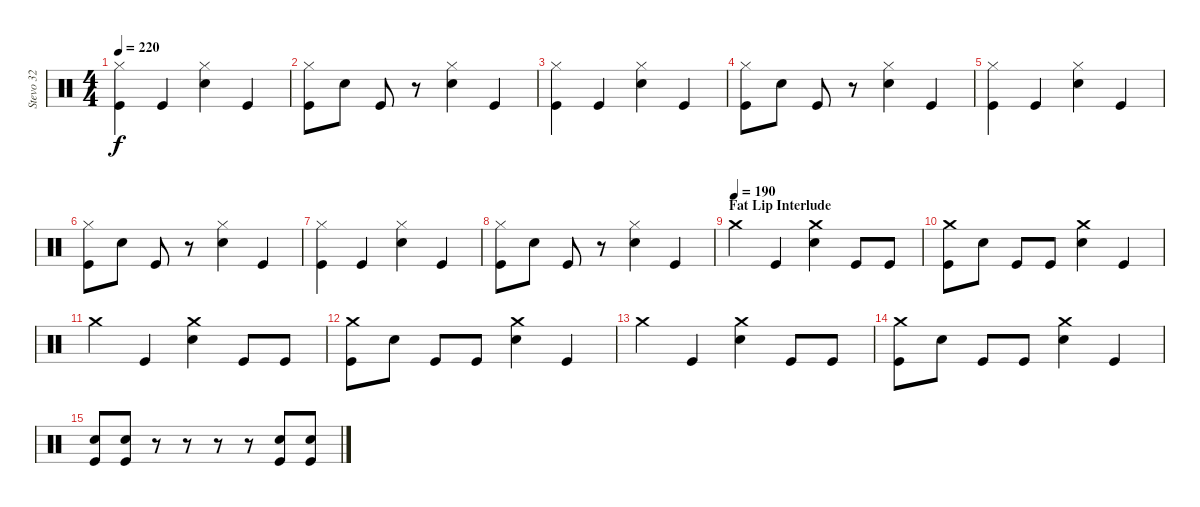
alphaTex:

\track ("Stevo 32" "Stevo 32") {instrument percussion}
\staff {score}
\articulation defaults
\ts (4 4)
\tempo 220
\clef neutral
\ks c
("Hi-Hat (closed)" "Kick (hit)").4{dy f} "Kick (hit)".4 ("Hi-Hat (closed)" "Snare (hit) 2").4 "Kick (hit)".4 |
("Hi-Hat (closed)" "Kick (hit)").8 "Snare (hit) 2".8 "Kick (hit)".8 r.8 ("Hi-Hat (closed)" "Snare (hit) 2").4 "Kick (hit)".4 |
("Hi-Hat (closed)" "Kick (hit)").4 "Kick (hit)".4 ("Hi-Hat (closed)" "Snare (hit) 2").4 "Kick (hit)".4 |
("Hi-Hat (closed)" "Kick (hit)").8 "Snare (hit) 2".8 "Kick (hit)".8 r.8 ("Hi-Hat (closed)" "Snare (hit) 2").4 "Kick (hit)".4 |
("Hi-Hat (closed)" "Kick (hit)").4 "Kick (hit)".4 ("Hi-Hat (closed)" "Snare (hit) 2").4 "Kick (hit)".4 |
("Hi-Hat (closed)" "Kick (hit)").8 "Snare (hit) 2".8 "Kick (hit)".8 r.8 ("Hi-Hat (closed)" "Snare (hit) 2").4 "Kick (hit)".4 |
("Hi-Hat (closed)" "Kick (hit)").4 "Kick (hit)".4 ("Hi-Hat (closed)" "Snare (hit) 2").4 "Kick (hit)".4 |
("Hi-Hat (closed)" "Kick (hit)").8 "Snare (hit) 2".8 "Kick (hit)".8 r.8 ("Hi-Hat (closed)" "Snare (hit) 2").4 "Kick (hit)".4 |
\section ("" "Fat Lip Interlude")
\tempo (190)
"Crash medium (hit)".4 "Kick (hit)".4 ("Crash medium (hit)" "Snare (hit) 2").4 "Kick (hit)".8 "Kick (hit)".8 |
("Crash medium (hit)" "Kick (hit)").8 "Snare (hit) 2".8 "Kick (hit)".8 "Kick (hit)".8 ("Crash medium (hit)" "Snare (hit) 2").4 "Kick (hit)".4 |
"Crash medium (hit)".4 "Kick (hit)".4 ("Crash medium (hit)" "Snare (hit) 2").4 "Kick (hit)".8 "Kick (hit)".8 |
("Crash medium (hit)" "Kick (hit)").8 "Snare (hit) 2".8 "Kick (hit)".8 "Kick (hit)".8 ("Crash medium (hit)" "Snare (hit) 2").4 "Kick (hit)".4 |
"Crash medium (hit)".4 "Kick (hit)".4 ("Crash medium (hit)" "Snare (hit) 2").4 "Kick (hit)".8 "Kick (hit)".8 |
("Crash medium (hit)" "Kick (hit)").8 "Snare (hit) 2".8 "Kick (hit)".8 "Kick (hit)".8 ("Crash medium (hit)" "Snare (hit) 2").4 "Kick (hit)".4 |
("Snare (hit) 2" "Kick (hit)").8 ("Snare (hit) 2" "Kick (hit)").8 r.8 r.8 r.8 r.8 ("Snare (hit) 2" "Kick (hit)").8 ("Snare (hit) 2" "Kick (hit)").8
